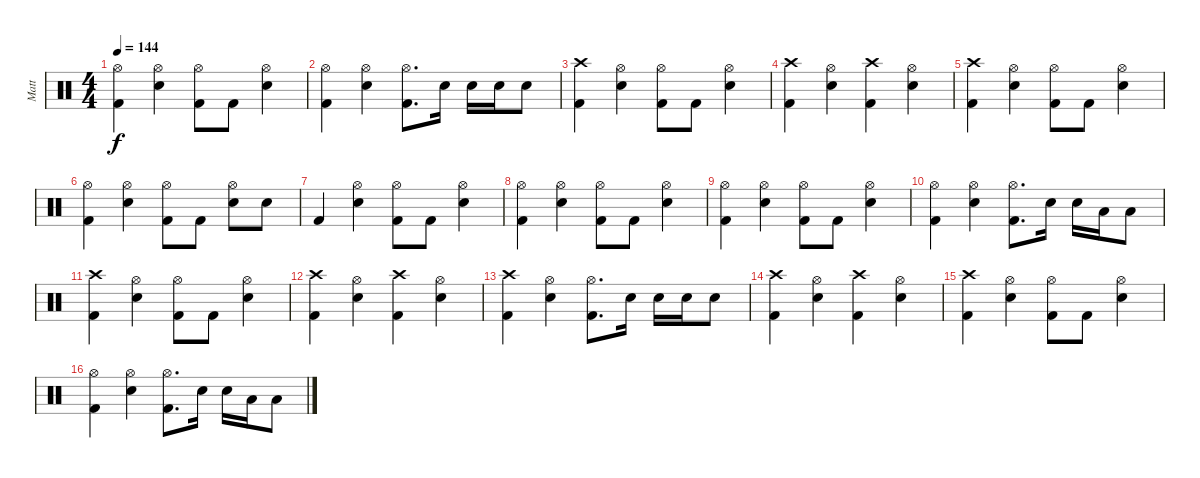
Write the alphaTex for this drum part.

\track ("Matt" "Matt") {instrument percussion}
\staff {score}
\articulation defaults
\ts (4 4)
\tempo 144
\clef neutral
\ks c
("Hi-Hat (open)" "Kick (hit) 2").4{dy f} ("Hi-Hat (open)" "Electric Snare (hit)").4 ("Hi-Hat (open)" "Kick (hit) 2").8 "Kick (hit) 2".8 ("Hi-Hat (open)" "Electric Snare (hit)").4 |
("Hi-Hat (open)" "Kick (hit) 2").4 ("Hi-Hat (open)" "Electric Snare (hit)").4 ("Hi-Hat (open)" "Kick (hit) 2").8{d} "Electric Snare (hit)".16 "Electric Snare (hit)".16 "Electric Snare (hit)".16 "Electric Snare (hit)".8 |
("Crash high (hit)" "Kick (hit) 2").4 ("Hi-Hat (open)" "Electric Snare (hit)").4 ("Hi-Hat (open)" "Kick (hit) 2").8 "Kick (hit) 2".8 ("Hi-Hat (open)" "Electric Snare (hit)").4 |
("Crash high (hit)" "Kick (hit) 2").4 ("Hi-Hat (open)" "Electric Snare (hit)").4 ("Crash high (hit)" "Kick (hit) 2").4 ("Hi-Hat (open)" "Electric Snare (hit)").4 |
("Crash high (hit)" "Kick (hit) 2").4 ("Hi-Hat (open)" "Electric Snare (hit)").4 ("Hi-Hat (open)" "Kick (hit) 2").8 "Kick (hit) 2".8 ("Hi-Hat (open)" "Electric Snare (hit)").4 |
("Hi-Hat (open)" "Kick (hit) 2").4 ("Hi-Hat (open)" "Electric Snare (hit)").4 ("Hi-Hat (open)" "Kick (hit) 2").8 "Kick (hit) 2".8 ("Hi-Hat (open)" "Electric Snare (hit)").8 "Electric Snare (hit)".8 |
"Kick (hit) 2".4 ("Hi-Hat (open)" "Electric Snare (hit)").4 ("Hi-Hat (open)" "Kick (hit) 2").8 "Kick (hit) 2".8 ("Hi-Hat (open)" "Electric Snare (hit)").4 |
("Hi-Hat (open)" "Kick (hit) 2").4 ("Hi-Hat (open)" "Electric Snare (hit)").4 ("Hi-Hat (open)" "Kick (hit) 2").8 "Kick (hit) 2".8 ("Hi-Hat (open)" "Electric Snare (hit)").4 |
("Hi-Hat (open)" "Kick (hit) 2").4 ("Hi-Hat (open)" "Electric Snare (hit)").4 ("Hi-Hat (open)" "Kick (hit) 2").8 "Kick (hit) 2".8 ("Hi-Hat (open)" "Electric Snare (hit)").4 |
("Hi-Hat (open)" "Kick (hit) 2").4 ("Hi-Hat (open)" "Electric Snare (hit)").4 ("Hi-Hat (open)" "Kick (hit) 2").8{d} "Electric Snare (hit)".16 "Electric Snare (hit)".16 "Low Tom (hit)".16 "Low Tom (hit)".8 |
("Crash high (hit)" "Kick (hit) 2").4 ("Hi-Hat (open)" "Electric Snare (hit)").4 ("Hi-Hat (open)" "Kick (hit) 2").8 "Kick (hit) 2".8 ("Hi-Hat (open)" "Electric Snare (hit)").4 |
("Crash high (hit)" "Kick (hit) 2").4 ("Hi-Hat (open)" "Electric Snare (hit)").4 ("Crash high (hit)" "Kick (hit) 2").4 ("Hi-Hat (open)" "Electric Snare (hit)").4 |
("Crash high (hit)" "Kick (hit) 2").4 ("Hi-Hat (open)" "Electric Snare (hit)").4 ("Hi-Hat (open)" "Kick (hit) 2").8{d} "Electric Snare (hit)".16 "Electric Snare (hit)".16 "Electric Snare (hit)".16 "Electric Snare (hit)".8 |
("Crash high (hit)" "Kick (hit) 2").4 ("Hi-Hat (open)" "Electric Snare (hit)").4 ("Crash high (hit)" "Kick (hit) 2").4 ("Hi-Hat (open)" "Electric Snare (hit)").4 |
("Crash high (hit)" "Kick (hit) 2").4 ("Hi-Hat (open)" "Electric Snare (hit)").4 ("Hi-Hat (open)" "Kick (hit) 2").8 "Kick (hit) 2".8 ("Hi-Hat (open)" "Electric Snare (hit)").4 |
("Hi-Hat (open)" "Kick (hit) 2").4 ("Hi-Hat (open)" "Electric Snare (hit)").4 ("Hi-Hat (open)" "Kick (hit) 2").8{d} "Electric Snare (hit)".16 "Electric Snare (hit)".16 "Low Tom (hit)".16 "Low Tom (hit)".8
